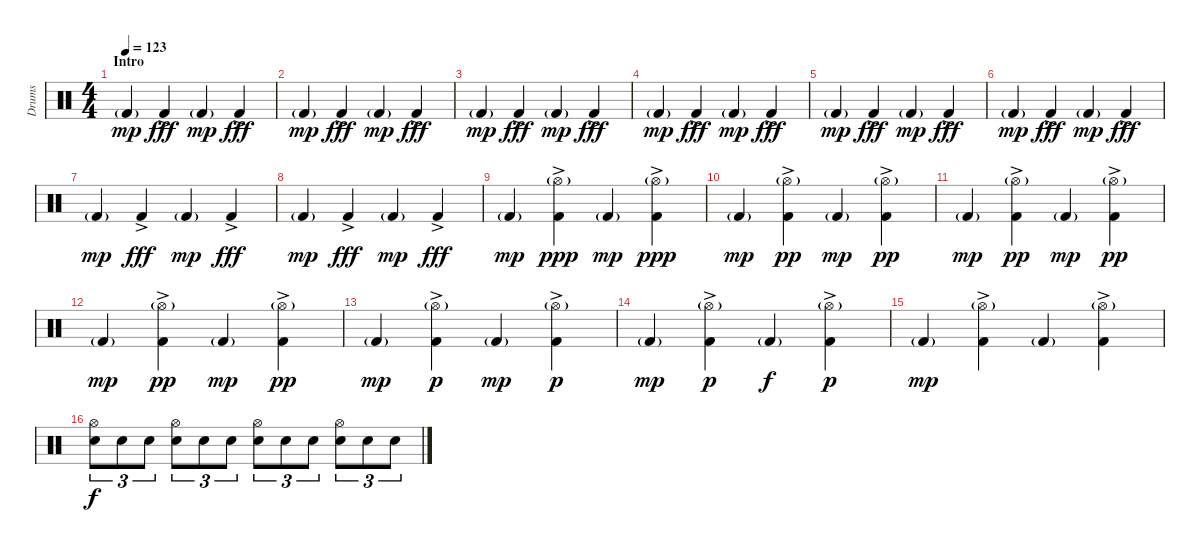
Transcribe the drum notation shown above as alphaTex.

\track ("Drums" "Drums") {instrument percussion}
\staff {score}
\articulation defaults
\ts (4 4)
\section ("" "Intro")
\tempo 123
\clef neutral
\ks c "Kick (hit) 2"{g}.4{dy mp} "Kick (hit) 2"{ac}.4{dy fff} "Kick (hit) 2"{g}.4{dy mp} "Kick (hit) 2"{ac}.4{dy fff}
|
"Kick (hit) 2"{g}.4{dy mp} "Kick (hit) 2"{ac}.4{dy fff} "Kick (hit) 2"{g}.4{dy mp} "Kick (hit) 2"{ac}.4{dy fff} |
"Kick (hit) 2"{g}.4{dy mp} "Kick (hit) 2"{ac}.4{dy fff} "Kick (hit) 2"{g}.4{dy mp} "Kick (hit) 2"{ac}.4{dy fff} |
"Kick (hit) 2"{g}.4{dy mp} "Kick (hit) 2"{ac}.4{dy fff} "Kick (hit) 2"{g}.4{dy mp} "Kick (hit) 2"{ac}.4{dy fff} |
"Kick (hit) 2"{g}.4{dy mp} "Kick (hit) 2"{ac}.4{dy fff} "Kick (hit) 2"{g}.4{dy mp} "Kick (hit) 2"{ac}.4{dy fff} |
"Kick (hit) 2"{g}.4{dy mp} "Kick (hit) 2"{ac}.4{dy fff} "Kick (hit) 2"{g}.4{dy mp} "Kick (hit) 2"{ac}.4{dy fff} |
"Kick (hit) 2"{g}.4{dy mp} "Kick (hit) 2"{ac}.4{dy fff} "Kick (hit) 2"{g}.4{dy mp} "Kick (hit) 2"{ac}.4{dy fff} |
"Kick (hit) 2"{g}.4{dy mp} "Kick (hit) 2"{ac}.4{dy fff} "Kick (hit) 2"{g}.4{dy mp} "Kick (hit) 2"{ac}.4{dy fff} |
"Kick (hit) 2"{g}.4{dy mp} ("Kick (hit) 2"{ac} "Hi-Hat (open)"{g}).4{dy ppp} "Kick (hit) 2"{g}.4{dy mp} ("Kick (hit) 2"{ac} "Hi-Hat (open)"{g}).4{dy ppp} |
"Kick (hit) 2"{g}.4{dy mp} ("Kick (hit) 2"{ac} "Hi-Hat (open)"{g}).4{dy pp} "Kick (hit) 2"{g}.4{dy mp} ("Kick (hit) 2"{ac} "Hi-Hat (open)"{g}).4{dy pp} |
"Kick (hit) 2"{g}.4{dy mp} ("Kick (hit) 2"{ac} "Hi-Hat (open)"{g}).4{dy pp} "Kick (hit) 2"{g}.4{dy mp} ("Kick (hit) 2"{ac} "Hi-Hat (open)"{g}).4{dy pp} |
"Kick (hit) 2"{g}.4{dy mp} ("Kick (hit) 2"{ac} "Hi-Hat (open)"{g}).4{dy pp} "Kick (hit) 2"{g}.4{dy mp} ("Kick (hit) 2"{ac} "Hi-Hat (open)"{g}).4{dy pp} |
"Kick (hit) 2"{g}.4{dy mp} ("Kick (hit) 2"{ac} "Hi-Hat (open)"{g}).4{dy p} "Kick (hit) 2"{g}.4{dy mp} ("Kick (hit) 2"{ac} "Hi-Hat (open)"{g}).4{dy p} |
"Kick (hit) 2"{g}.4{dy mp} ("Kick (hit) 2"{ac} "Hi-Hat (open)"{g}).4{dy p} "Kick (hit) 2"{g}.4{dy f} ("Kick (hit) 2"{ac} "Hi-Hat (open)"{g}).4{dy p} |
"Kick (hit) 2"{g}.4{dy mp} ("Kick (hit) 2"{ac} "Hi-Hat (open)"{g}).4 "Kick (hit) 2"{g}.4 ("Kick (hit) 2"{ac} "Hi-Hat (open)"{g}).4 |
("Hi-Hat (open)" "Electric Snare (hit)").8{tu (3 2) dy f} "Electric Snare (hit)".8{tu (3 2)} "Electric Snare (hit)".8{tu (3 2)} ("Hi-Hat (open)" "Electric Snare (hit)").8{tu (3 2)} "Electric Snare (hit)".8{tu (3 2)} "Electric Snare (hit)".8{tu (3 2)} ("Hi-Hat (open)" "Electric Snare (hit)").8{tu (3 2)} "Electric Snare (hit)".8{tu (3 2)} "Electric Snare (hit)".8{tu (3 2)} ("Hi-Hat (open)" "Electric Snare (hit)").8{tu (3 2)} "Electric Snare (hit)".8{tu (3 2)} "Electric Snare (hit)".8{tu (3 2)}
